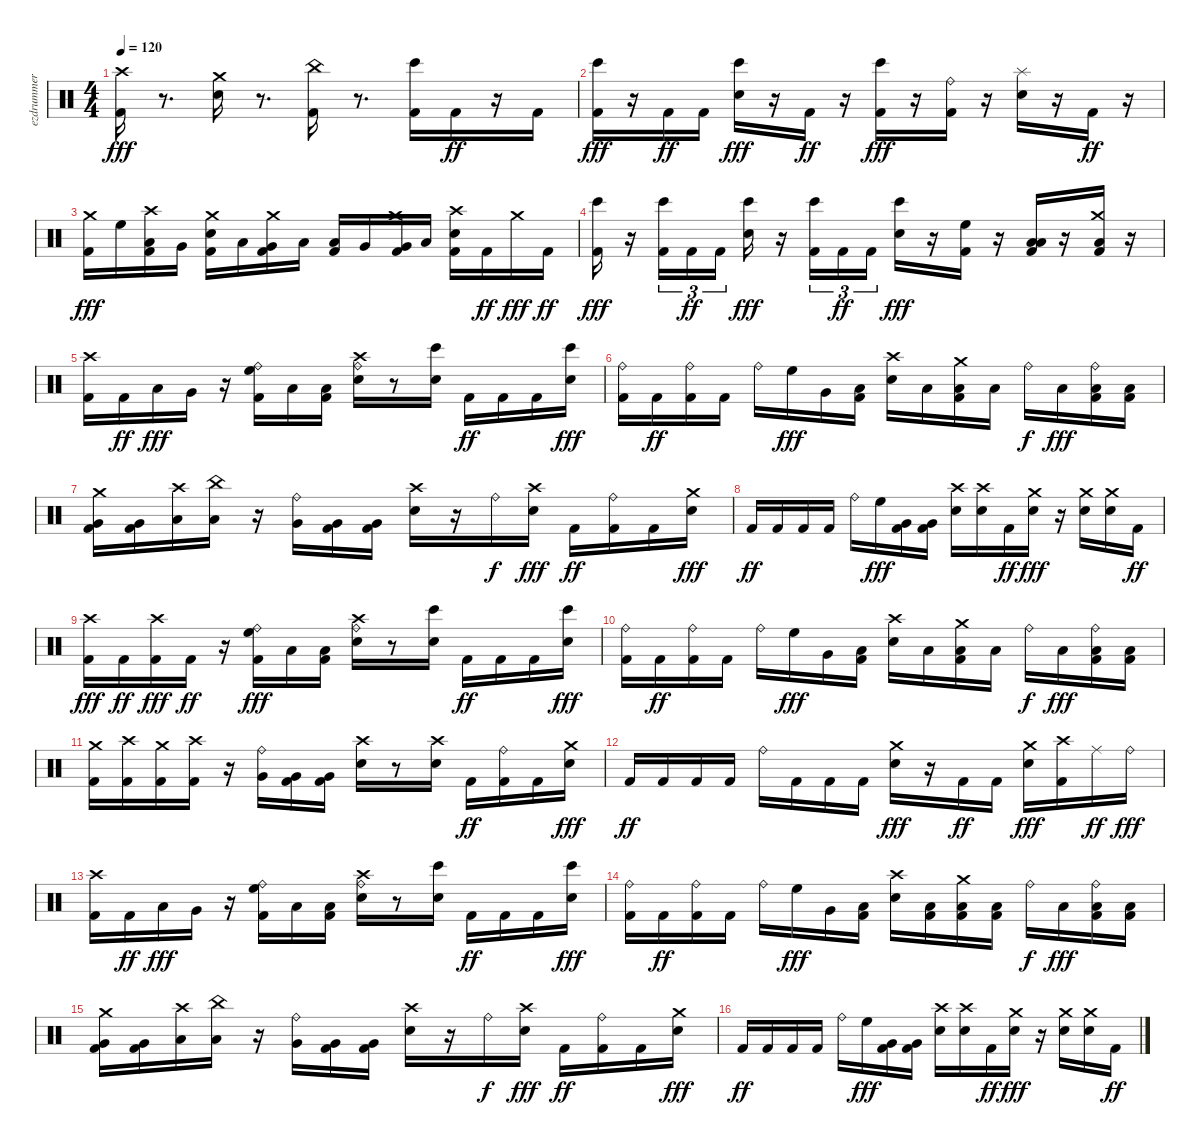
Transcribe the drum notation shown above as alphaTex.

\track ("ezdrummer 02" "ezdrummer ") {instrument percussion}
\staff {score}
\articulation defaults
\ts (4 4)
\tempo 120
\clef neutral
\ks c
("Kick (hit) 2" "Crash high (hit)").16{dy fff} r.8{d} ("Snare (hit) 2" "Crash medium (hit)").16 r.8{d} ("Kick (hit) 2" "China (hit)").16 r.8{d} ("Kick (hit) 2" "Bongo High (hit)").16 "Kick (hit) 2".16{dy ff} r.16 "Kick (hit) 2".16 |
("Kick (hit) 2" "Bongo High (hit)").16{dy fff} r.16 "Kick (hit) 2".16{dy ff} "Kick (hit) 2".16 ("Snare (hit) 2" "Bongo High (hit)").16{dy fff} r.16 "Kick (hit) 2".16{dy ff} r.16 ("Kick (hit) 2" "Bongo High (hit)").16{dy fff} r.16 ("Kick (hit) 2" "Ride (bell)").16 r.16 ("Snare (hit) 2" "Splash (hit)").16 r.16 "Kick (hit) 2".16{dy ff} r.16 |
("Kick (hit) 2" "Crash medium (hit)").16{dy fff} "High Floor Tom (hit)".16 ("Kick (hit) 2" "Low Tom (hit)" "Crash high (hit)").16 "Very Low Tom (hit)".16 ("Kick (hit) 2" "Snare (hit) 2" "Crash medium (hit)").16 "Low Tom (hit)".16 ("Kick (hit) 2" "Very Low Tom (hit)" "Crash medium (hit)").16 "Low Floor Tom (hit)".16 ("Kick (hit) 2" "Low Floor Tom (hit)").16 "Very Low Tom (hit)".16 ("Kick (hit) 2" "Very Low Tom (hit)" "Crash medium (hit)").16 "Low Floor Tom (hit)".16 ("Kick (hit) 2" "Snare (hit) 2" "Crash high (hit)").16 "Kick (hit) 2".16{dy ff} "Crash medium (hit)".16{dy fff} "Kick (hit) 2".16{dy ff} |
("Kick (hit) 2" "Bongo High (hit)").16{dy fff} r.16 ("Kick (hit) 2" "Bongo High (hit)").16{tu (3 2)} "Kick (hit) 2".16{tu (3 2) dy ff} "Kick (hit) 2".16{tu (3 2)} ("Snare (hit) 2" "Bongo High (hit)").16{dy fff} r.16 ("Kick (hit) 2" "Bongo High (hit)").16{tu (3 2)} "Kick (hit) 2".16{tu (3 2) dy ff} "Kick (hit) 2".16{tu (3 2)} ("Snare (hit) 2" "Bongo High (hit)").16{dy fff} r.16 ("Kick (hit) 2" "High Floor Tom (hit)").16 r.16 ("Kick (hit) 2" "Low Floor Tom (hit)" "Low Tom (hit)").16 r.16 ("Kick (hit) 2" "Low Tom (hit)" "Crash medium (hit)").16 r.16 |
("Kick (hit) 2" "Crash high (hit)").16 "Kick (hit) 2".16{dy ff} "Low Tom (hit)".16{dy fff} "Very Low Tom (hit)".16 r.16 ("Kick (hit) 2" "High Floor Tom (hit)" "Ride (bell)").16 "Low Tom (hit)".16 ("Kick (hit) 2" "Low Tom (hit)").16 ("Snare (hit) 2" "Crash high (hit)" "Ride (bell)").16 r.8 ("Snare (hit) 2" "Bongo High (hit)").16 "Kick (hit) 2".16{dy ff} "Kick (hit) 2".16 "Kick (hit) 2".16 ("Snare (hit) 2" "Bongo High (hit)").16{dy fff} |
("Kick (hit) 2" "Ride (bell)").16 "Kick (hit) 2".16{dy ff} ("Kick (hit) 2" "Ride (bell)").16 "Kick (hit) 2".16 "Ride (bell)".16 "High Floor Tom (hit)".16{dy fff} "Very Low Tom (hit)".16 ("Kick (hit) 2" "Low Floor Tom (hit)").16 ("Snare (hit) 2" "Crash high (hit)").16 "Low Tom (hit)".16 ("Kick (hit) 2" "Low Floor Tom (hit)" "Crash medium (hit)").16 "Low Floor Tom (hit)".16 "Ride (bell)".16{dy f} "Low Tom (hit)".16{dy fff} ("Kick (hit) 2" "Low Floor Tom (hit)" "Ride (bell)").16 ("Kick (hit) 2" "Low Floor Tom (hit)").16 |
("Kick (hit) 2" "Very Low Tom (hit)" "Crash medium (hit)").16 ("Kick (hit) 2" "Very Low Tom (hit)").16 ("Low Floor Tom (hit)" "Crash high (hit)").16 ("Low Floor Tom (hit)" "China (hit)").16 r.16 ("Very Low Tom (hit)" "Ride (bell)").16 ("Kick (hit) 2" "Very Low Tom (hit)").16 ("Kick (hit) 2" "Very Low Tom (hit)").16 ("Snare (hit) 2" "Crash high (hit)").16 r.16 "Ride (bell)".16{dy f} ("Snare (hit) 2" "Crash high (hit)").16{dy fff} "Kick (hit) 2".16{dy ff} ("Kick (hit) 2" "Ride (bell)").16 "Kick (hit) 2".16 ("Snare (hit) 2" "Crash medium (hit)").16{dy fff} |
"Kick (hit) 2".16{dy ff} "Kick (hit) 2".16 "Kick (hit) 2".16 "Kick (hit) 2".16 "Ride (bell)".16 "High Floor Tom (hit)".16{dy fff} ("Kick (hit) 2" "Very Low Tom (hit)").16 ("Kick (hit) 2" "Very Low Tom (hit)").16 ("Snare (hit) 2" "Crash high (hit)").16 ("Snare (hit) 2" "Crash high (hit)").16 "Kick (hit) 2".16{dy ff} ("Snare (hit) 2" "Crash medium (hit)").16{dy fff} r.16 ("Snare (hit) 2" "Crash medium (hit)").16 ("Snare (hit) 2" "Crash medium (hit)").16 "Kick (hit) 2".16{dy ff} |
("Kick (hit) 2" "Crash high (hit)").16{dy fff} "Kick (hit) 2".16{dy ff} ("Kick (hit) 2" "Crash high (hit)").16{dy fff} "Kick (hit) 2".16{dy ff} r.16 ("Kick (hit) 2" "High Floor Tom (hit)" "Ride (bell)").16{dy fff} "Low Tom (hit)".16 ("Kick (hit) 2" "Low Tom (hit)").16 ("Snare (hit) 2" "Crash high (hit)" "Ride (bell)").16 r.8 ("Snare (hit) 2" "Bongo High (hit)").16 "Kick (hit) 2".16{dy ff} "Kick (hit) 2".16 "Kick (hit) 2".16 ("Snare (hit) 2" "Bongo High (hit)").16{dy fff} |
("Kick (hit) 2" "Ride (bell)").16 "Kick (hit) 2".16{dy ff} ("Kick (hit) 2" "Ride (bell)").16 "Kick (hit) 2".16 "Ride (bell)".16 "High Floor Tom (hit)".16{dy fff} "Very Low Tom (hit)".16 ("Kick (hit) 2" "Low Floor Tom (hit)").16 ("Snare (hit) 2" "Crash high (hit)").16 "Low Tom (hit)".16 ("Kick (hit) 2" "Low Floor Tom (hit)" "Crash medium (hit)").16 "Low Floor Tom (hit)".16 "Ride (bell)".16{dy f} "Low Tom (hit)".16{dy fff} ("Kick (hit) 2" "Low Floor Tom (hit)" "Ride (bell)").16 ("Kick (hit) 2" "Low Floor Tom (hit)").16 |
("Kick (hit) 2" "Crash medium (hit)").16 ("Kick (hit) 2" "Crash high (hit)").16 ("Kick (hit) 2" "Crash medium (hit)").16 ("Kick (hit) 2" "Crash high (hit)").16 r.16 ("Very Low Tom (hit)" "Ride (bell)").16 ("Kick (hit) 2" "Very Low Tom (hit)").16 ("Kick (hit) 2" "Very Low Tom (hit)").16 ("Snare (hit) 2" "Crash high (hit)").16 r.8 ("Snare (hit) 2" "Crash high (hit)").16 "Kick (hit) 2".16{dy ff} ("Kick (hit) 2" "Ride (bell)").16 "Kick (hit) 2".16 ("Snare (hit) 2" "Crash medium (hit)").16{dy fff} |
"Kick (hit) 2".16{dy ff} "Kick (hit) 2".16 "Kick (hit) 2".16 "Kick (hit) 2".16 "Ride (bell)".16 "Kick (hit) 2".16 "Kick (hit) 2".16 "Kick (hit) 2".16 ("Snare (hit) 2" "Crash medium (hit)").16{dy fff} r.16 "Kick (hit) 2".16{dy ff} "Kick (hit) 2".16 ("Snare (hit) 2" "Crash medium (hit)").16{dy fff} ("Kick (hit) 2" "Crash high (hit)").16 "Ride (middle)".16{dy ff} "Ride (bell)".16{dy fff} |
("Kick (hit) 2" "Crash high (hit)").16 "Kick (hit) 2".16{dy ff} "Low Tom (hit)".16{dy fff} "Very Low Tom (hit)".16 r.16 ("Kick (hit) 2" "High Floor Tom (hit)" "Ride (bell)").16 "Low Tom (hit)".16 ("Kick (hit) 2" "Low Tom (hit)").16 ("Snare (hit) 2" "Crash high (hit)" "Ride (bell)").16 r.8 ("Snare (hit) 2" "Bongo High (hit)").16 "Kick (hit) 2".16{dy ff} "Kick (hit) 2".16 "Kick (hit) 2".16 ("Snare (hit) 2" "Bongo High (hit)").16{dy fff} |
("Kick (hit) 2" "Ride (bell)").16 "Kick (hit) 2".16{dy ff} ("Kick (hit) 2" "Ride (bell)").16 "Kick (hit) 2".16 "Ride (bell)".16 "High Floor Tom (hit)".16{dy fff} "Very Low Tom (hit)".16 ("Kick (hit) 2" "Low Floor Tom (hit)").16 ("Snare (hit) 2" "Crash high (hit)").16 ("Kick (hit) 2" "Low Tom (hit)").16 ("Kick (hit) 2" "Low Floor Tom (hit)" "Crash medium (hit)").16 ("Kick (hit) 2" "Low Floor Tom (hit)").16 "Ride (bell)".16{dy f} "Low Tom (hit)".16{dy fff} ("Kick (hit) 2" "Low Floor Tom (hit)" "Ride (bell)").16 ("Kick (hit) 2" "Low Floor Tom (hit)").16 |
("Kick (hit) 2" "Very Low Tom (hit)" "Crash medium (hit)").16 ("Kick (hit) 2" "Very Low Tom (hit)").16 ("Low Floor Tom (hit)" "Crash high (hit)").16 ("Low Floor Tom (hit)" "China (hit)").16 r.16 ("Very Low Tom (hit)" "Ride (bell)").16 ("Kick (hit) 2" "Very Low Tom (hit)").16 ("Kick (hit) 2" "Very Low Tom (hit)").16 ("Snare (hit) 2" "Crash high (hit)").16 r.16 "Ride (bell)".16{dy f} ("Snare (hit) 2" "Crash high (hit)").16{dy fff} "Kick (hit) 2".16{dy ff} ("Kick (hit) 2" "Ride (bell)").16 "Kick (hit) 2".16 ("Snare (hit) 2" "Crash medium (hit)").16{dy fff} |
"Kick (hit) 2".16{dy ff} "Kick (hit) 2".16 "Kick (hit) 2".16 "Kick (hit) 2".16 "Ride (bell)".16 "High Floor Tom (hit)".16{dy fff} ("Kick (hit) 2" "Very Low Tom (hit)").16 ("Kick (hit) 2" "Very Low Tom (hit)").16 ("Snare (hit) 2" "Crash high (hit)").16 ("Snare (hit) 2" "Crash high (hit)").16 "Kick (hit) 2".16{dy ff} ("Snare (hit) 2" "Crash medium (hit)").16{dy fff} r.16 ("Snare (hit) 2" "Crash medium (hit)").16 ("Snare (hit) 2" "Crash medium (hit)").16 "Kick (hit) 2".16{dy ff}
